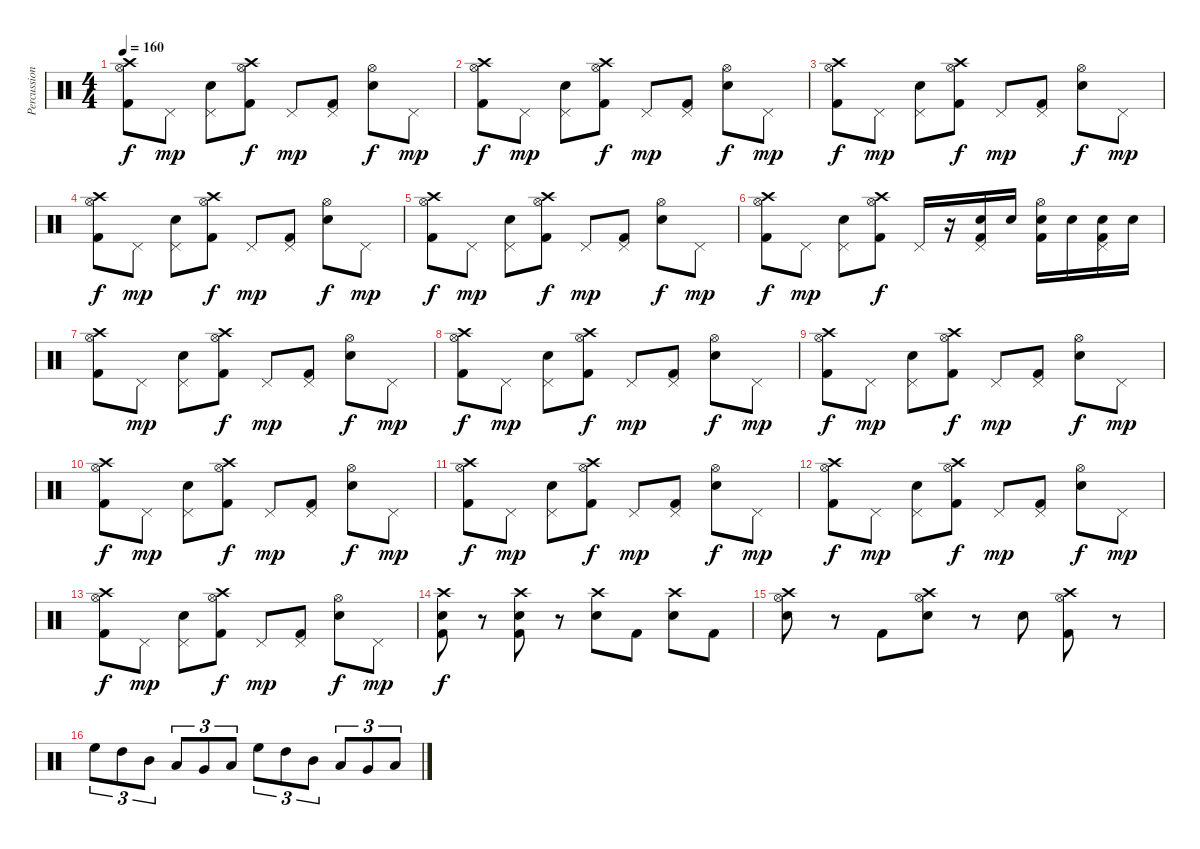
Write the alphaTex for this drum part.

\track ("Percussion" "Percussion") {instrument percussion}
\staff {score}
\articulation defaults
\ts (4 4)
\tempo 160
\clef neutral
\ks c
("Hi-Hat (open)" "Crash high (hit)" "Kick (hit) 2").8{dy f} "Pedal Hi-Hat (hit)".8{dy mp} ("Pedal Hi-Hat (hit)" "Snare (hit) 2").8 ("Hi-Hat (open)" "Crash high (hit)" "Kick (hit) 2").8{dy f} "Pedal Hi-Hat (hit)".8{dy mp} ("Pedal Hi-Hat (hit)" "Kick (hit) 2").8 ("Hi-Hat (open)" "Snare (hit) 2").8{dy f} "Pedal Hi-Hat (hit)".8{dy mp} |
("Hi-Hat (open)" "Crash high (hit)" "Kick (hit) 2").8{dy f} "Pedal Hi-Hat (hit)".8{dy mp} ("Pedal Hi-Hat (hit)" "Snare (hit) 2").8 ("Hi-Hat (open)" "Crash high (hit)" "Kick (hit) 2").8{dy f} "Pedal Hi-Hat (hit)".8{dy mp} ("Pedal Hi-Hat (hit)" "Kick (hit) 2").8 ("Hi-Hat (open)" "Snare (hit) 2").8{dy f} "Pedal Hi-Hat (hit)".8{dy mp} |
("Hi-Hat (open)" "Crash high (hit)" "Kick (hit) 2").8{dy f} "Pedal Hi-Hat (hit)".8{dy mp} ("Pedal Hi-Hat (hit)" "Snare (hit) 2").8 ("Hi-Hat (open)" "Crash high (hit)" "Kick (hit) 2").8{dy f} "Pedal Hi-Hat (hit)".8{dy mp} ("Pedal Hi-Hat (hit)" "Kick (hit) 2").8 ("Hi-Hat (open)" "Snare (hit) 2").8{dy f} "Pedal Hi-Hat (hit)".8{dy mp} |
("Hi-Hat (open)" "Crash high (hit)" "Kick (hit) 2").8{dy f} "Pedal Hi-Hat (hit)".8{dy mp} ("Pedal Hi-Hat (hit)" "Snare (hit) 2").8 ("Hi-Hat (open)" "Crash high (hit)" "Kick (hit) 2").8{dy f} "Pedal Hi-Hat (hit)".8{dy mp} ("Pedal Hi-Hat (hit)" "Kick (hit) 2").8 ("Hi-Hat (open)" "Snare (hit) 2").8{dy f} "Pedal Hi-Hat (hit)".8{dy mp} |
("Hi-Hat (open)" "Crash high (hit)" "Kick (hit) 2").8{dy f} "Pedal Hi-Hat (hit)".8{dy mp} ("Pedal Hi-Hat (hit)" "Snare (hit) 2").8 ("Hi-Hat (open)" "Crash high (hit)" "Kick (hit) 2").8{dy f} "Pedal Hi-Hat (hit)".8{dy mp} ("Pedal Hi-Hat (hit)" "Kick (hit) 2").8 ("Hi-Hat (open)" "Snare (hit) 2").8{dy f} "Pedal Hi-Hat (hit)".8{dy mp} |
("Hi-Hat (open)" "Crash high (hit)" "Kick (hit) 2").8{dy f} "Pedal Hi-Hat (hit)".8{dy mp} ("Pedal Hi-Hat (hit)" "Snare (hit) 2").8 ("Hi-Hat (open)" "Crash high (hit)" "Kick (hit) 2").8{dy f} "Pedal Hi-Hat (hit)".16 r.16 ("Pedal Hi-Hat (hit)" "Snare (hit) 2" "Kick (hit) 2").16 "Snare (hit) 2".16 ("Hi-Hat (open)" "Snare (hit) 2" "Kick (hit) 2").16 "Snare (hit) 2".16 ("Pedal Hi-Hat (hit)" "Snare (hit) 2" "Kick (hit) 2").16 "Snare (hit) 2".16 |
("Hi-Hat (open)" "Crash high (hit)" "Kick (hit) 2").8 "Pedal Hi-Hat (hit)".8{dy mp} ("Pedal Hi-Hat (hit)" "Snare (hit) 2").8 ("Hi-Hat (open)" "Crash high (hit)" "Kick (hit) 2").8{dy f} "Pedal Hi-Hat (hit)".8{dy mp} ("Pedal Hi-Hat (hit)" "Kick (hit) 2").8 ("Hi-Hat (open)" "Snare (hit) 2").8{dy f} "Pedal Hi-Hat (hit)".8{dy mp} |
("Hi-Hat (open)" "Crash high (hit)" "Kick (hit) 2").8{dy f} "Pedal Hi-Hat (hit)".8{dy mp} ("Pedal Hi-Hat (hit)" "Snare (hit) 2").8 ("Hi-Hat (open)" "Crash high (hit)" "Kick (hit) 2").8{dy f} "Pedal Hi-Hat (hit)".8{dy mp} ("Pedal Hi-Hat (hit)" "Kick (hit) 2").8 ("Hi-Hat (open)" "Snare (hit) 2").8{dy f} "Pedal Hi-Hat (hit)".8{dy mp} |
("Hi-Hat (open)" "Crash high (hit)" "Kick (hit) 2").8{dy f} "Pedal Hi-Hat (hit)".8{dy mp} ("Pedal Hi-Hat (hit)" "Snare (hit) 2").8 ("Hi-Hat (open)" "Crash high (hit)" "Kick (hit) 2").8{dy f} "Pedal Hi-Hat (hit)".8{dy mp} ("Pedal Hi-Hat (hit)" "Kick (hit) 2").8 ("Hi-Hat (open)" "Snare (hit) 2").8{dy f} "Pedal Hi-Hat (hit)".8{dy mp} |
("Hi-Hat (open)" "Crash high (hit)" "Kick (hit) 2").8{dy f} "Pedal Hi-Hat (hit)".8{dy mp} ("Pedal Hi-Hat (hit)" "Snare (hit) 2").8 ("Hi-Hat (open)" "Crash high (hit)" "Kick (hit) 2").8{dy f} "Pedal Hi-Hat (hit)".8{dy mp} ("Pedal Hi-Hat (hit)" "Kick (hit) 2").8 ("Hi-Hat (open)" "Snare (hit) 2").8{dy f} "Pedal Hi-Hat (hit)".8{dy mp} |
("Hi-Hat (open)" "Crash high (hit)" "Kick (hit) 2").8{dy f} "Pedal Hi-Hat (hit)".8{dy mp} ("Pedal Hi-Hat (hit)" "Snare (hit) 2").8 ("Hi-Hat (open)" "Crash high (hit)" "Kick (hit) 2").8{dy f} "Pedal Hi-Hat (hit)".8{dy mp} ("Pedal Hi-Hat (hit)" "Kick (hit) 2").8 ("Hi-Hat (open)" "Snare (hit) 2").8{dy f} "Pedal Hi-Hat (hit)".8{dy mp} |
("Hi-Hat (open)" "Crash high (hit)" "Kick (hit) 2").8{dy f} "Pedal Hi-Hat (hit)".8{dy mp} ("Pedal Hi-Hat (hit)" "Snare (hit) 2").8 ("Hi-Hat (open)" "Crash high (hit)" "Kick (hit) 2").8{dy f} "Pedal Hi-Hat (hit)".8{dy mp} ("Pedal Hi-Hat (hit)" "Kick (hit) 2").8 ("Hi-Hat (open)" "Snare (hit) 2").8{dy f} "Pedal Hi-Hat (hit)".8{dy mp} |
("Hi-Hat (open)" "Crash high (hit)" "Kick (hit) 2").8{dy f} "Pedal Hi-Hat (hit)".8{dy mp} ("Pedal Hi-Hat (hit)" "Snare (hit) 2").8 ("Hi-Hat (open)" "Crash high (hit)" "Kick (hit) 2").8{dy f} "Pedal Hi-Hat (hit)".8{dy mp} ("Pedal Hi-Hat (hit)" "Kick (hit) 2").8 ("Hi-Hat (open)" "Snare (hit) 2").8{dy f} "Pedal Hi-Hat (hit)".8{dy mp} |
("Crash high (hit)" "Snare (hit) 2" "Kick (hit) 2").8{dy f} r.8 ("Crash high (hit)" "Snare (hit) 2" "Kick (hit) 2").8 r.8 ("Crash high (hit)" "Snare (hit) 2").8 "Kick (hit) 2".8 ("Crash high (hit)" "Snare (hit) 2").8 "Kick (hit) 2".8 |
("Hi-Hat (open)" "Crash high (hit)" "Snare (hit) 2").8 r.8 "Kick (hit) 2".8 ("Hi-Hat (open)" "Crash high (hit)" "Snare (hit) 2").8 r.8 "Snare (hit) 2".8 ("Hi-Hat (open)" "Crash high (hit)" "Kick (hit) 2").8 r.8 |
"High Floor Tom (hit)".8{tu (3 2)} "High Tom (hit)".8{tu (3 2)} "Mid Tom (hit)".8{tu (3 2)} "Low Tom (hit)".8{tu (3 2)} "Very Low Tom (hit)".8{tu (3 2)} "Low Floor Tom (hit)".8{tu (3 2)} "High Floor Tom (hit)".8{tu (3 2)} "High Tom (hit)".8{tu (3 2)} "Mid Tom (hit)".8{tu (3 2)} "Low Tom (hit)".8{tu (3 2)} "Very Low Tom (hit)".8{tu (3 2)} "Low Floor Tom (hit)".8{tu (3 2)}
